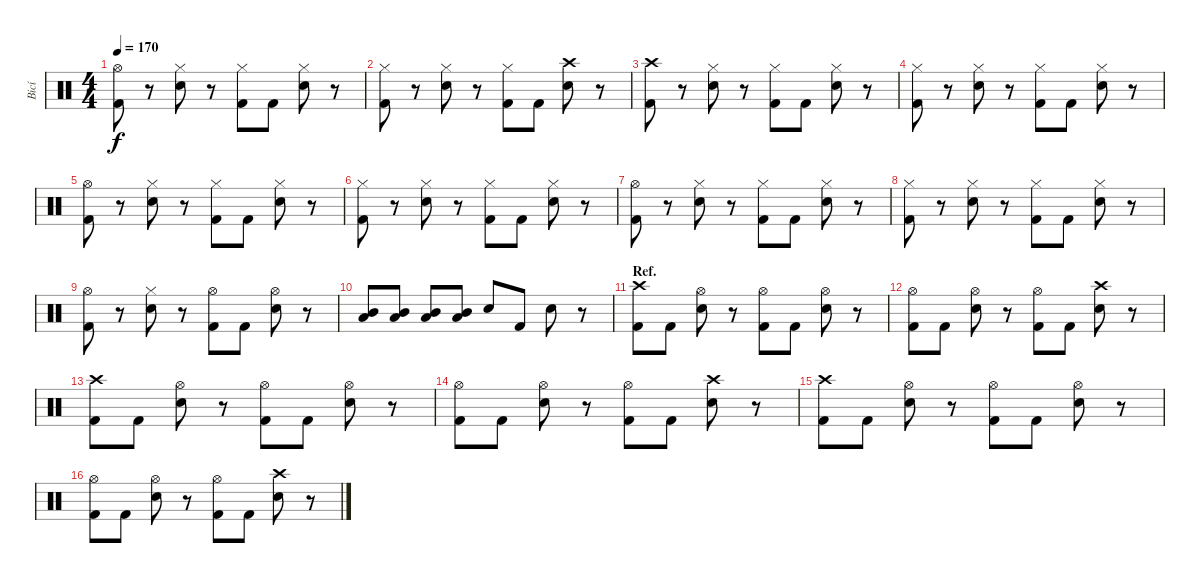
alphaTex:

\track ("Bicí" "Bicí") {instrument percussion}
\staff {score}
\articulation defaults
\ts (4 4)
\tempo 170
\clef neutral
\ks c
("Hi-Hat (open)" "Kick (hit) 2").8{dy f} r.8 ("Hi-Hat (closed)" "Snare (hit) 2").8 r.8 ("Hi-Hat (closed)" "Kick (hit) 2").8 "Kick (hit) 2".8 ("Hi-Hat (closed)" "Snare (hit) 2").8 r.8 |
("Hi-Hat (closed)" "Kick (hit) 2").8 r.8 ("Hi-Hat (closed)" "Snare (hit) 2").8 r.8 ("Hi-Hat (closed)" "Kick (hit) 2").8 "Kick (hit) 2".8 ("Crash high (hit)" "Snare (hit) 2").8 r.8 |
("Crash high (hit)" "Kick (hit) 2").8 r.8 ("Hi-Hat (closed)" "Snare (hit) 2").8 r.8 ("Hi-Hat (closed)" "Kick (hit) 2").8 "Kick (hit) 2".8 ("Hi-Hat (closed)" "Snare (hit) 2").8 r.8 |
("Hi-Hat (closed)" "Kick (hit) 2").8 r.8 ("Hi-Hat (closed)" "Snare (hit) 2").8 r.8 ("Hi-Hat (closed)" "Kick (hit) 2").8 "Kick (hit) 2".8 ("Hi-Hat (closed)" "Snare (hit) 2").8 r.8 |
("Hi-Hat (open)" "Kick (hit) 2").8 r.8 ("Hi-Hat (closed)" "Snare (hit) 2").8 r.8 ("Hi-Hat (closed)" "Kick (hit) 2").8 "Kick (hit) 2".8 ("Hi-Hat (closed)" "Snare (hit) 2").8 r.8 |
("Hi-Hat (closed)" "Kick (hit) 2").8 r.8 ("Hi-Hat (closed)" "Snare (hit) 2").8 r.8 ("Hi-Hat (closed)" "Kick (hit) 2").8 "Kick (hit) 2".8 ("Hi-Hat (closed)" "Snare (hit) 2").8 r.8 |
("Hi-Hat (open)" "Kick (hit) 2").8 r.8 ("Hi-Hat (closed)" "Snare (hit) 2").8 r.8 ("Hi-Hat (closed)" "Kick (hit) 2").8 "Kick (hit) 2".8 ("Hi-Hat (closed)" "Snare (hit) 2").8 r.8 |
("Hi-Hat (closed)" "Kick (hit) 2").8 r.8 ("Hi-Hat (closed)" "Snare (hit) 2").8 r.8 ("Hi-Hat (closed)" "Kick (hit) 2").8 "Kick (hit) 2".8 ("Hi-Hat (closed)" "Snare (hit) 2").8 r.8 |
("Hi-Hat (open)" "Kick (hit) 2").8 r.8 ("Hi-Hat (closed)" "Snare (hit) 2").8 r.8 ("Hi-Hat (open)" "Kick (hit) 2").8 "Kick (hit) 2".8 ("Hi-Hat (open)" "Snare (hit) 2").8 r.8 |
("Low Tom (hit)" "Mid Tom (hit)").8 ("Low Tom (hit)" "Mid Tom (hit)").8 ("Low Tom (hit)" "Mid Tom (hit)").8 ("Low Tom (hit)" "Mid Tom (hit)").8 "Snare (hit) 2".8 "Kick (hit) 2".8 "Snare (hit) 2".8 r.8 |
\section ("" "Ref.")
("Crash high (hit)" "Kick (hit) 2").8 "Kick (hit) 2".8 ("Hi-Hat (open)" "Snare (hit) 2").8 r.8 ("Hi-Hat (open)" "Kick (hit) 2").8 "Kick (hit) 2".8 ("Hi-Hat (open)" "Snare (hit) 2").8 r.8 |
("Hi-Hat (open)" "Kick (hit) 2").8 "Kick (hit) 2".8 ("Hi-Hat (open)" "Snare (hit) 2").8 r.8 ("Hi-Hat (open)" "Kick (hit) 2").8 "Kick (hit) 2".8 ("Crash high (hit)" "Snare (hit) 2").8 r.8 |
("Crash high (hit)" "Kick (hit) 2").8 "Kick (hit) 2".8 ("Hi-Hat (open)" "Snare (hit) 2").8 r.8 ("Hi-Hat (open)" "Kick (hit) 2").8 "Kick (hit) 2".8 ("Hi-Hat (open)" "Snare (hit) 2").8 r.8 |
("Hi-Hat (open)" "Kick (hit) 2").8 "Kick (hit) 2".8 ("Hi-Hat (open)" "Snare (hit) 2").8 r.8 ("Hi-Hat (open)" "Kick (hit) 2").8 "Kick (hit) 2".8 ("Crash high (hit)" "Snare (hit) 2").8 r.8 |
("Crash high (hit)" "Kick (hit) 2").8 "Kick (hit) 2".8 ("Hi-Hat (open)" "Snare (hit) 2").8 r.8 ("Hi-Hat (open)" "Kick (hit) 2").8 "Kick (hit) 2".8 ("Hi-Hat (open)" "Snare (hit) 2").8 r.8 |
("Hi-Hat (open)" "Kick (hit) 2").8 "Kick (hit) 2".8 ("Hi-Hat (open)" "Snare (hit) 2").8 r.8 ("Hi-Hat (open)" "Kick (hit) 2").8 "Kick (hit) 2".8 ("Crash high (hit)" "Snare (hit) 2").8 r.8
